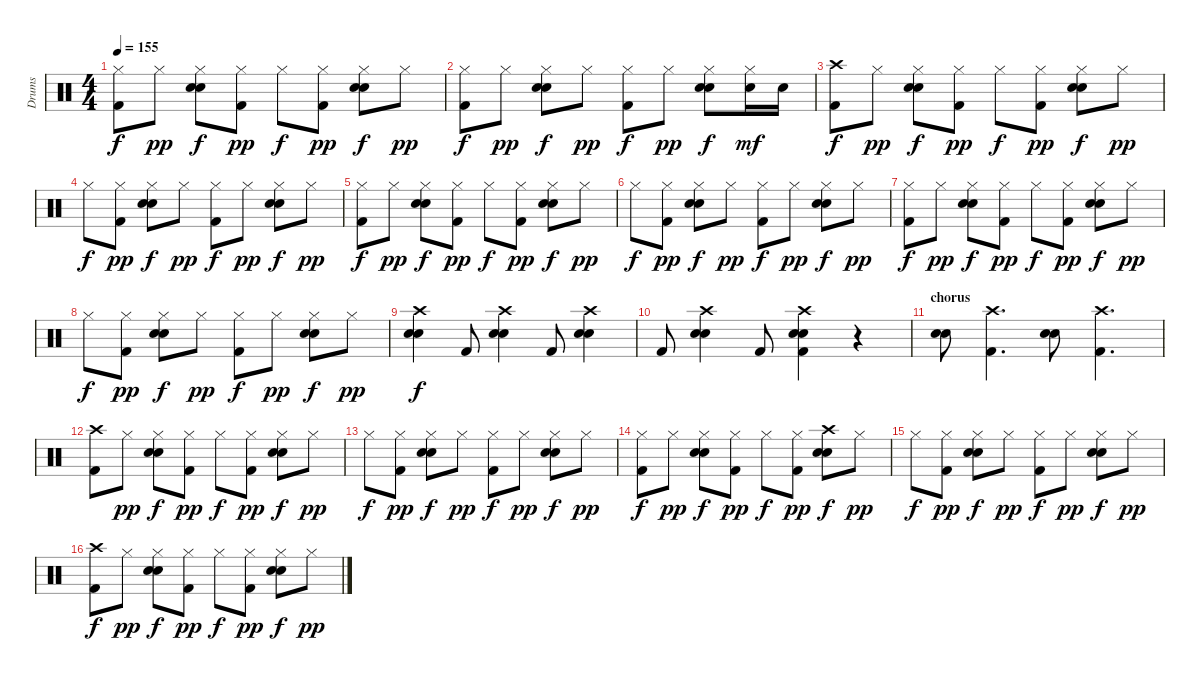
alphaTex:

\track ("Drums" "Drums") {instrument percussion}
\staff {score}
\articulation defaults
\ts (4 4)
\tempo 155
\clef neutral
\ks c
("Hi-Hat (closed)" "Kick (hit) 2").8{dy f} "Hi-Hat (closed)".8{dy pp} ("Hi-Hat (closed)" "Snare (hit) 2" "Electric Snare (hit)").8{dy f} ("Hi-Hat (closed)" "Kick (hit) 2").8{dy pp} "Hi-Hat (closed)".8{dy f} ("Hi-Hat (closed)" "Kick (hit) 2").8{dy pp} ("Hi-Hat (closed)" "Snare (hit) 2" "Electric Snare (hit)").8{dy f} "Hi-Hat (closed)".8{dy pp} |
("Hi-Hat (closed)" "Kick (hit) 2").8{dy f} "Hi-Hat (closed)".8{dy pp} ("Hi-Hat (closed)" "Snare (hit) 2" "Electric Snare (hit)").8{dy f} "Hi-Hat (closed)".8{dy pp} ("Hi-Hat (closed)" "Kick (hit) 2").8{dy f} "Hi-Hat (closed)".8{dy pp} ("Hi-Hat (closed)" "Snare (hit) 2" "Electric Snare (hit)").8{dy f} ("Hi-Hat (closed)" "Snare (hit) 2").16{dy mf} "Snare (hit) 2".16 |
\section ("" "")
("Crash high (hit)" "Kick (hit) 2").8{dy f} "Hi-Hat (closed)".8{dy pp} ("Hi-Hat (closed)" "Snare (hit) 2" "Electric Snare (hit)").8{dy f} ("Hi-Hat (closed)" "Kick (hit) 2").8{dy pp} "Hi-Hat (closed)".8{dy f} ("Hi-Hat (closed)" "Kick (hit) 2").8{dy pp} ("Hi-Hat (closed)" "Snare (hit) 2" "Electric Snare (hit)").8{dy f} "Hi-Hat (closed)".8{dy pp} |
"Hi-Hat (closed)".8{dy f} ("Hi-Hat (closed)" "Kick (hit) 2").8{dy pp} ("Hi-Hat (closed)" "Snare (hit) 2" "Electric Snare (hit)").8{dy f} "Hi-Hat (closed)".8{dy pp} ("Hi-Hat (closed)" "Kick (hit) 2").8{dy f} "Hi-Hat (closed)".8{dy pp} ("Hi-Hat (closed)" "Snare (hit) 2" "Electric Snare (hit)").8{dy f} "Hi-Hat (closed)".8{dy pp} |
("Hi-Hat (closed)" "Kick (hit) 2").8{dy f} "Hi-Hat (closed)".8{dy pp} ("Hi-Hat (closed)" "Snare (hit) 2" "Electric Snare (hit)").8{dy f} ("Hi-Hat (closed)" "Kick (hit) 2").8{dy pp} "Hi-Hat (closed)".8{dy f} ("Hi-Hat (closed)" "Kick (hit) 2").8{dy pp} ("Hi-Hat (closed)" "Snare (hit) 2" "Electric Snare (hit)").8{dy f} "Hi-Hat (closed)".8{dy pp} |
"Hi-Hat (closed)".8{dy f} ("Hi-Hat (closed)" "Kick (hit) 2").8{dy pp} ("Hi-Hat (closed)" "Snare (hit) 2" "Electric Snare (hit)").8{dy f} "Hi-Hat (closed)".8{dy pp} ("Hi-Hat (closed)" "Kick (hit) 2").8{dy f} "Hi-Hat (closed)".8{dy pp} ("Hi-Hat (closed)" "Snare (hit) 2" "Electric Snare (hit)").8{dy f} "Hi-Hat (closed)".8{dy pp} |
("Hi-Hat (closed)" "Kick (hit) 2").8{dy f} "Hi-Hat (closed)".8{dy pp} ("Hi-Hat (closed)" "Snare (hit) 2" "Electric Snare (hit)").8{dy f} ("Hi-Hat (closed)" "Kick (hit) 2").8{dy pp} "Hi-Hat (closed)".8{dy f} ("Hi-Hat (closed)" "Kick (hit) 2").8{dy pp} ("Hi-Hat (closed)" "Snare (hit) 2" "Electric Snare (hit)").8{dy f} "Hi-Hat (closed)".8{dy pp} |
"Hi-Hat (closed)".8{dy f} ("Hi-Hat (closed)" "Kick (hit) 2").8{dy pp} ("Hi-Hat (closed)" "Snare (hit) 2" "Electric Snare (hit)").8{dy f} "Hi-Hat (closed)".8{dy pp} ("Hi-Hat (closed)" "Kick (hit) 2").8{dy f} "Hi-Hat (closed)".8{dy pp} ("Hi-Hat (closed)" "Snare (hit) 2" "Electric Snare (hit)").8{dy f} "Hi-Hat (closed)".8{dy pp} |
("Crash high (hit)" "Snare (hit) 2" "Electric Snare (hit)").4{dy f} "Kick (hit) 2".8 ("Crash high (hit)" "Snare (hit) 2" "Electric Snare (hit)").4 "Kick (hit) 2".8 ("Crash high (hit)" "Snare (hit) 2" "Electric Snare (hit)").4 |
"Kick (hit) 2".8 ("Crash high (hit)" "Snare (hit) 2" "Electric Snare (hit)").4 "Kick (hit) 2".8 ("Crash high (hit)" "Snare (hit) 2" "Electric Snare (hit)" "Kick (hit) 2").4 r.4 |
\section ("" "chorus")
("Snare (hit) 2" "Electric Snare (hit)").8 ("Crash high (hit)" "Kick (hit) 2").4{d} ("Snare (hit) 2" "Electric Snare (hit)").8 ("Crash high (hit)" "Kick (hit) 2").4{d} |
("Crash high (hit)" "Kick (hit) 2").8 "Hi-Hat (closed)".8{dy pp} ("Hi-Hat (closed)" "Snare (hit) 2" "Electric Snare (hit)").8{dy f} ("Hi-Hat (closed)" "Kick (hit) 2").8{dy pp} "Hi-Hat (closed)".8{dy f} ("Hi-Hat (closed)" "Kick (hit) 2").8{dy pp} ("Hi-Hat (closed)" "Snare (hit) 2" "Electric Snare (hit)").8{dy f} "Hi-Hat (closed)".8{dy pp} |
"Hi-Hat (closed)".8{dy f} ("Hi-Hat (closed)" "Kick (hit) 2").8{dy pp} ("Hi-Hat (closed)" "Snare (hit) 2" "Electric Snare (hit)").8{dy f} "Hi-Hat (closed)".8{dy pp} ("Hi-Hat (closed)" "Kick (hit) 2").8{dy f} "Hi-Hat (closed)".8{dy pp} ("Hi-Hat (closed)" "Snare (hit) 2" "Electric Snare (hit)").8{dy f} "Hi-Hat (closed)".8{dy pp} |
("Hi-Hat (closed)" "Kick (hit) 2").8{dy f} "Hi-Hat (closed)".8{dy pp} ("Hi-Hat (closed)" "Snare (hit) 2" "Electric Snare (hit)").8{dy f} ("Hi-Hat (closed)" "Kick (hit) 2").8{dy pp} "Hi-Hat (closed)".8{dy f} ("Hi-Hat (closed)" "Kick (hit) 2").8{dy pp} ("Crash high (hit)" "Snare (hit) 2" "Electric Snare (hit)").8{dy f} "Hi-Hat (closed)".8{dy pp} |
"Hi-Hat (closed)".8{dy f} ("Hi-Hat (closed)" "Kick (hit) 2").8{dy pp} ("Hi-Hat (closed)" "Snare (hit) 2" "Electric Snare (hit)").8{dy f} "Hi-Hat (closed)".8{dy pp} ("Hi-Hat (closed)" "Kick (hit) 2").8{dy f} "Hi-Hat (closed)".8{dy pp} ("Hi-Hat (closed)" "Snare (hit) 2" "Electric Snare (hit)").8{dy f} "Hi-Hat (closed)".8{dy pp} |
("Crash high (hit)" "Kick (hit) 2").8{dy f} "Hi-Hat (closed)".8{dy pp} ("Hi-Hat (closed)" "Snare (hit) 2" "Electric Snare (hit)").8{dy f} ("Hi-Hat (closed)" "Kick (hit) 2").8{dy pp} "Hi-Hat (closed)".8{dy f} ("Hi-Hat (closed)" "Kick (hit) 2").8{dy pp} ("Hi-Hat (closed)" "Snare (hit) 2" "Electric Snare (hit)").8{dy f} "Hi-Hat (closed)".8{dy pp}
